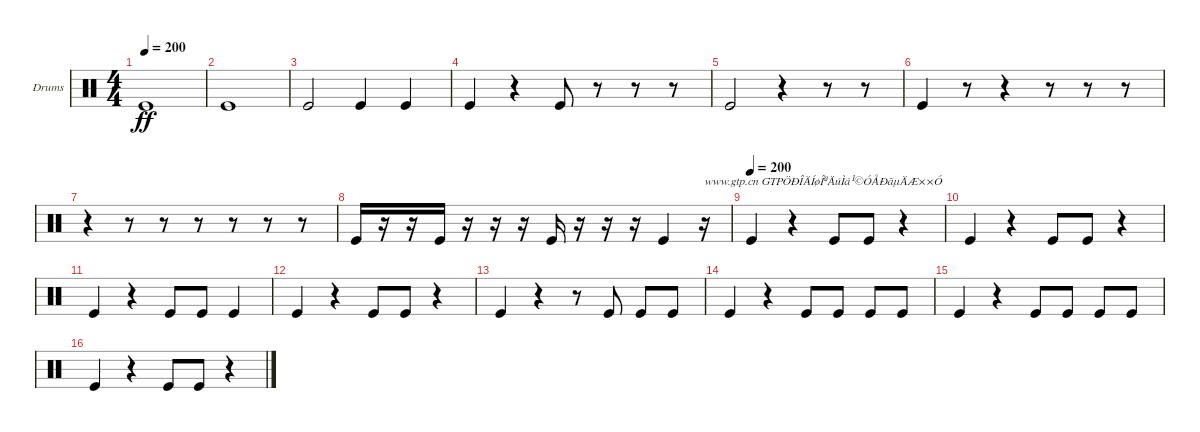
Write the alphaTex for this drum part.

\bracketExtendMode groupsimilarinstruments
\firstSystemTrackNameOrientation horizontal
\otherSystemsTrackNameOrientation horizontal
\track ("Drumkit" "Drums") {instrument percussion}
\staff {score}
\articulation defaults
\ts (4 4)
\tempo 200
\clef neutral
\ks c "Kick (hit)".1{dy ff}
|
"Kick (hit)".1 |
"Kick (hit)".2 "Kick (hit)".4 "Kick (hit)".4 |
"Kick (hit)".4 r.4 "Kick (hit)".8 r.8 r.8 r.8 |
"Kick (hit)".2 r.4 r.8 r.8 |
"Kick (hit)".4 r.8 r.4 r.8 r.8 r.8 |
r.4 r.8 r.8 r.8 r.8 r.8 r.8 |
"Kick (hit)".16 r.16 r.16 "Kick (hit)".16 r.16 r.16 r.16 "Kick (hit)".16 r.16 r.16 r.16 "Kick (hit)".4 r.16{txt "www.gtp.cn GTPÖÐÎÄÍøÎªÄúÌá¹©ÓÅÐãµÄÆ××Ó"} |
\tempo (200)
"Kick (hit)".4 r.4 "Kick (hit)".8 "Kick (hit)".8 r.4 |
"Kick (hit)".4 r.4 "Kick (hit)".8 "Kick (hit)".8 r.4 |
"Kick (hit)".4 r.4 "Kick (hit)".8 "Kick (hit)".8 "Kick (hit)".4 |
"Kick (hit)".4 r.4 "Kick (hit)".8 "Kick (hit)".8 r.4 |
"Kick (hit)".4 r.4 r.8 "Kick (hit)".8 "Kick (hit)".8 "Kick (hit)".8 |
"Kick (hit)".4 r.4 "Kick (hit)".8 "Kick (hit)".8 "Kick (hit)".8 "Kick (hit)".8 |
"Kick (hit)".4 r.4 "Kick (hit)".8 "Kick (hit)".8 "Kick (hit)".8 "Kick (hit)".8 |
"Kick (hit)".4 r.4 "Kick (hit)".8 "Kick (hit)".8 r.4
